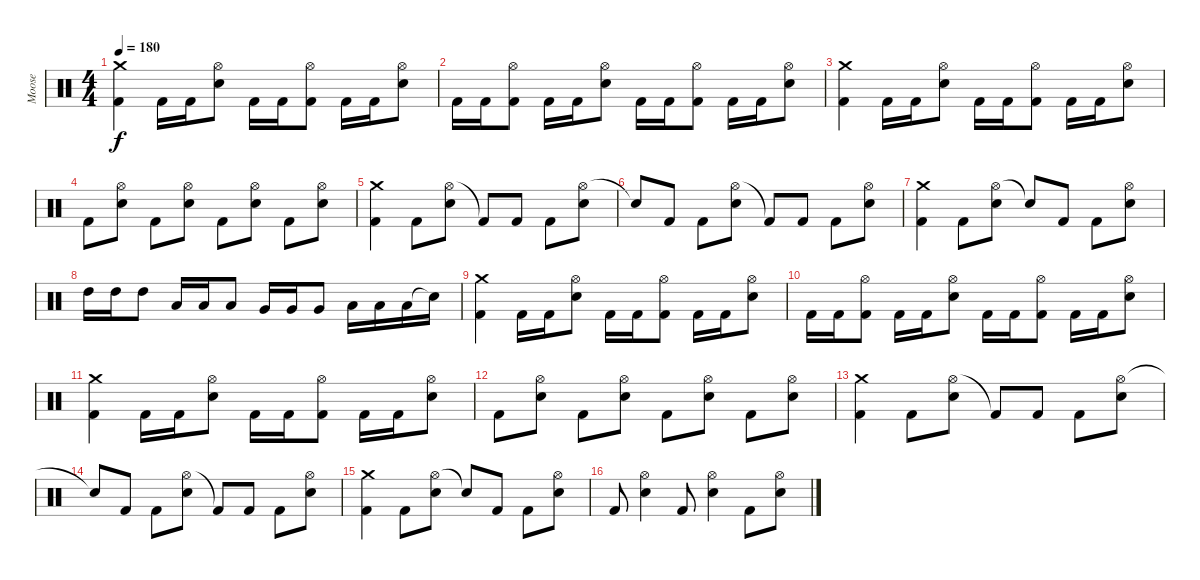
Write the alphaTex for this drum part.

\track ("Moose" "Moose") {instrument percussion}
\staff {score}
\articulation defaults
\ts (4 4)
\tempo 180
\clef neutral
\ks c
("Crash medium (hit)" "Kick (hit) 2").4{dy f} "Kick (hit) 2".16 "Kick (hit) 2".16 ("Hi-Hat (open)" "Electric Snare (hit)").8 "Kick (hit) 2".16 "Kick (hit) 2".16 ("Hi-Hat (open)" "Kick (hit) 2").8 "Kick (hit) 2".16 "Kick (hit) 2".16 ("Hi-Hat (open)" "Electric Snare (hit)").8 |
"Kick (hit) 2".16 "Kick (hit) 2".16 ("Hi-Hat (open)" "Kick (hit) 2").8 "Kick (hit) 2".16 "Kick (hit) 2".16 ("Hi-Hat (open)" "Electric Snare (hit)").8 "Kick (hit) 2".16 "Kick (hit) 2".16 ("Hi-Hat (open)" "Kick (hit) 2").8 "Kick (hit) 2".16 "Kick (hit) 2".16 ("Hi-Hat (open)" "Electric Snare (hit)").8 |
("Crash medium (hit)" "Kick (hit) 2").4 "Kick (hit) 2".16 "Kick (hit) 2".16 ("Hi-Hat (open)" "Electric Snare (hit)").8 "Kick (hit) 2".16 "Kick (hit) 2".16 ("Hi-Hat (open)" "Kick (hit) 2").8 "Kick (hit) 2".16 "Kick (hit) 2".16 ("Hi-Hat (open)" "Electric Snare (hit)").8 |
"Kick (hit) 2".8 ("Hi-Hat (open)" "Electric Snare (hit)").8 "Kick (hit) 2".8 ("Hi-Hat (open)" "Electric Snare (hit)").8 "Kick (hit) 2".8 ("Hi-Hat (open)" "Electric Snare (hit)").8 "Kick (hit) 2".8 ("Hi-Hat (open)" "Electric Snare (hit)").8 |
("Crash medium (hit)" "Kick (hit) 2").4 "Kick (hit) 2".8 ("Hi-Hat (open)" "Electric Snare (hit)").8 "Kick (hit) 2"{t}.8 "Kick (hit) 2".8 "Kick (hit) 2".8 ("Hi-Hat (open)" "Electric Snare (hit)").8 |
"Snare (hit)"{t}.8 "Kick (hit) 2".8 "Kick (hit) 2".8 ("Hi-Hat (open)" "Electric Snare (hit)").8 "Kick (hit) 2"{t}.8 "Kick (hit) 2".8 "Kick (hit) 2".8 ("Hi-Hat (open)" "Electric Snare (hit)").8 |
("Crash medium (hit)" "Kick (hit) 2").4 "Kick (hit) 2".8 ("Hi-Hat (open)" "Electric Snare (hit)").8 "Snare (hit)"{t}.8 "Kick (hit) 2".8 "Kick (hit) 2".8 ("Hi-Hat (open)" "Electric Snare (hit)").8 |
"High Tom (hit)".16 "High Tom (hit)".16 "High Tom (hit)".8 "Low Tom (hit)".16 "Low Tom (hit)".16 "Low Tom (hit)".8 "Very Low Tom (hit)".16 "Very Low Tom (hit)".16 "Very Low Tom (hit)".8 "Low Floor Tom (hit)".16 "Low Floor Tom (hit)".16 "Low Floor Tom (hit)".16 "Snare (hit)"{t}.16 |
("Crash medium (hit)" "Kick (hit) 2").4 "Kick (hit) 2".16 "Kick (hit) 2".16 ("Hi-Hat (open)" "Electric Snare (hit)").8 "Kick (hit) 2".16 "Kick (hit) 2".16 ("Hi-Hat (open)" "Kick (hit) 2").8 "Kick (hit) 2".16 "Kick (hit) 2".16 ("Hi-Hat (open)" "Electric Snare (hit)").8 |
"Kick (hit) 2".16 "Kick (hit) 2".16 ("Hi-Hat (open)" "Kick (hit) 2").8 "Kick (hit) 2".16 "Kick (hit) 2".16 ("Hi-Hat (open)" "Electric Snare (hit)").8 "Kick (hit) 2".16 "Kick (hit) 2".16 ("Hi-Hat (open)" "Kick (hit) 2").8 "Kick (hit) 2".16 "Kick (hit) 2".16 ("Hi-Hat (open)" "Electric Snare (hit)").8 |
("Crash medium (hit)" "Kick (hit) 2").4 "Kick (hit) 2".16 "Kick (hit) 2".16 ("Hi-Hat (open)" "Electric Snare (hit)").8 "Kick (hit) 2".16 "Kick (hit) 2".16 ("Hi-Hat (open)" "Kick (hit) 2").8 "Kick (hit) 2".16 "Kick (hit) 2".16 ("Hi-Hat (open)" "Electric Snare (hit)").8 |
"Kick (hit) 2".8 ("Hi-Hat (open)" "Electric Snare (hit)").8 "Kick (hit) 2".8 ("Hi-Hat (open)" "Electric Snare (hit)").8 "Kick (hit) 2".8 ("Hi-Hat (open)" "Electric Snare (hit)").8 "Kick (hit) 2".8 ("Hi-Hat (open)" "Electric Snare (hit)").8 |
("Crash medium (hit)" "Kick (hit) 2").4 "Kick (hit) 2".8 ("Hi-Hat (open)" "Electric Snare (hit)").8 "Kick (hit) 2"{t}.8 "Kick (hit) 2".8 "Kick (hit) 2".8 ("Hi-Hat (open)" "Electric Snare (hit)").8 |
"Snare (hit)"{t}.8 "Kick (hit) 2".8 "Kick (hit) 2".8 ("Hi-Hat (open)" "Electric Snare (hit)").8 "Kick (hit) 2"{t}.8 "Kick (hit) 2".8 "Kick (hit) 2".8 ("Hi-Hat (open)" "Electric Snare (hit)").8 |
("Crash medium (hit)" "Kick (hit) 2").4 "Kick (hit) 2".8 ("Hi-Hat (open)" "Electric Snare (hit)").8 "Snare (hit)"{t}.8 "Kick (hit) 2".8 "Kick (hit) 2".8 ("Hi-Hat (open)" "Electric Snare (hit)").8 |
"Kick (hit) 2".8 ("Hi-Hat (open)" "Electric Snare (hit)").4 "Kick (hit) 2".8 ("Hi-Hat (open)" "Electric Snare (hit)").4 "Kick (hit) 2".8 ("Hi-Hat (open)" "Electric Snare (hit)").8
